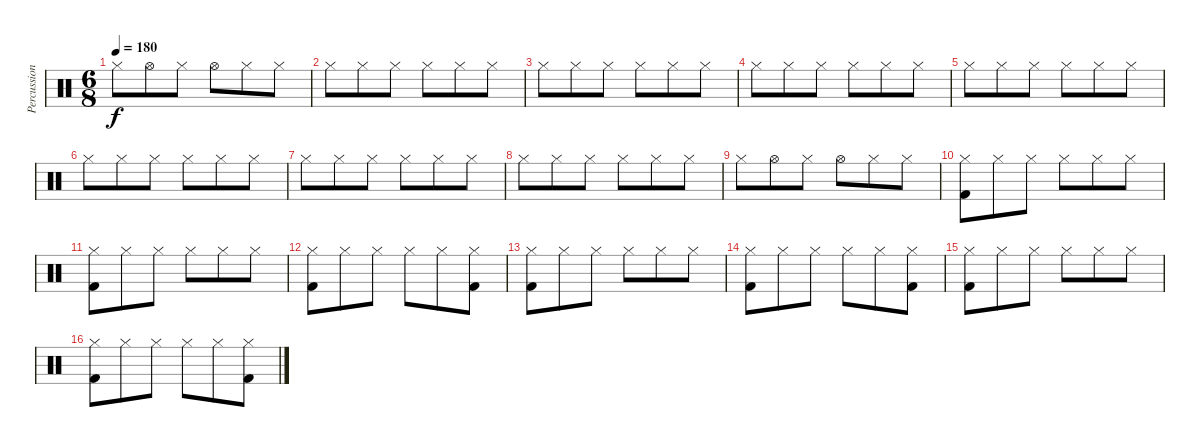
\track ("Percussion" "Percussion") {instrument percussion}
\staff {score}
\articulation defaults
\ts (6 8)
\tempo 180
\clef neutral
\ks c "Hi-Hat (closed)".8{dy f} "Hi-Hat (open)".8 "Hi-Hat (closed)".8 "Hi-Hat (open)".8 "Hi-Hat (closed)".8 "Hi-Hat (closed)".8
|
"Hi-Hat (closed)".8 "Hi-Hat (closed)".8 "Hi-Hat (closed)".8 "Hi-Hat (closed)".8 "Hi-Hat (closed)".8 "Hi-Hat (closed)".8 |
"Hi-Hat (closed)".8 "Hi-Hat (closed)".8 "Hi-Hat (closed)".8 "Hi-Hat (closed)".8 "Hi-Hat (closed)".8 "Hi-Hat (closed)".8 |
"Hi-Hat (closed)".8 "Hi-Hat (closed)".8 "Hi-Hat (closed)".8 "Hi-Hat (closed)".8 "Hi-Hat (closed)".8 "Hi-Hat (closed)".8 |
"Hi-Hat (closed)".8 "Hi-Hat (closed)".8 "Hi-Hat (closed)".8 "Hi-Hat (closed)".8 "Hi-Hat (closed)".8 "Hi-Hat (closed)".8 |
"Hi-Hat (closed)".8 "Hi-Hat (closed)".8 "Hi-Hat (closed)".8 "Hi-Hat (closed)".8 "Hi-Hat (closed)".8 "Hi-Hat (closed)".8 |
"Hi-Hat (closed)".8 "Hi-Hat (closed)".8 "Hi-Hat (closed)".8 "Hi-Hat (closed)".8 "Hi-Hat (closed)".8 "Hi-Hat (closed)".8 |
"Hi-Hat (closed)".8 "Hi-Hat (closed)".8 "Hi-Hat (closed)".8 "Hi-Hat (closed)".8 "Hi-Hat (closed)".8 "Hi-Hat (closed)".8 |
"Hi-Hat (closed)".8 "Hi-Hat (open)".8 "Hi-Hat (closed)".8 "Hi-Hat (open)".8 "Hi-Hat (closed)".8 "Hi-Hat (closed)".8 |
("Hi-Hat (closed)" "Kick (hit) 2").8 "Hi-Hat (closed)".8 "Hi-Hat (closed)".8 "Hi-Hat (closed)".8 "Hi-Hat (closed)".8 "Hi-Hat (closed)".8 |
("Hi-Hat (closed)" "Kick (hit) 2").8 "Hi-Hat (closed)".8 "Hi-Hat (closed)".8 "Hi-Hat (closed)".8 "Hi-Hat (closed)".8 "Hi-Hat (closed)".8 |
("Hi-Hat (closed)" "Kick (hit) 2").8 "Hi-Hat (closed)".8 "Hi-Hat (closed)".8 "Hi-Hat (closed)".8 "Hi-Hat (closed)".8 ("Hi-Hat (closed)" "Kick (hit) 2").8 |
("Hi-Hat (closed)" "Kick (hit) 2").8 "Hi-Hat (closed)".8 "Hi-Hat (closed)".8 "Hi-Hat (closed)".8 "Hi-Hat (closed)".8 "Hi-Hat (closed)".8 |
("Hi-Hat (closed)" "Kick (hit) 2").8 "Hi-Hat (closed)".8 "Hi-Hat (closed)".8 "Hi-Hat (closed)".8 "Hi-Hat (closed)".8 ("Hi-Hat (closed)" "Kick (hit) 2").8 |
("Hi-Hat (closed)" "Kick (hit) 2").8 "Hi-Hat (closed)".8 "Hi-Hat (closed)".8 "Hi-Hat (closed)".8 "Hi-Hat (closed)".8 "Hi-Hat (closed)".8 |
("Hi-Hat (closed)" "Kick (hit) 2").8 "Hi-Hat (closed)".8 "Hi-Hat (closed)".8 "Hi-Hat (closed)".8 "Hi-Hat (closed)".8 ("Hi-Hat (closed)" "Kick (hit) 2").8
